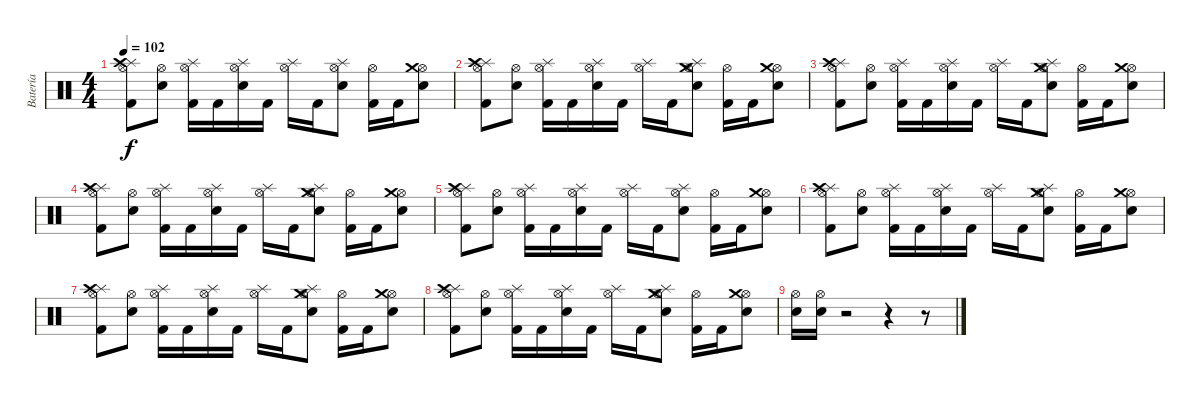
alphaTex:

\track ("Batería" "Batería") {instrument percussion}
\staff {score}
\articulation defaults
\ts (4 4)
\tempo 102
\clef neutral
\ks c
("Hi-Hat (open)" "Splash (hit)" "Kick (hit) 2" "Crash high (hit)").8{dy f} ("Hi-Hat (open)" "Snare (hit) 2").8 ("Hi-Hat (open)" "Splash (hit)" "Kick (hit) 2").16 "Kick (hit) 2".16 ("Hi-Hat (open)" "Snare (hit) 2" "Splash (hit)").16 "Kick (hit) 2".16 ("Hi-Hat (open)" "Splash (hit)").16 "Kick (hit) 2".16 ("Hi-Hat (open)" "Snare (hit) 2" "Splash (hit)").8 ("Hi-Hat (open)" "Kick (hit) 2").16 "Kick (hit) 2".16 ("Hi-Hat (open)" "Snare (hit) 2" "Crash medium (hit)").8 |
("Hi-Hat (open)" "Splash (hit)" "Kick (hit) 2" "Crash high (hit)").8 ("Hi-Hat (open)" "Snare (hit) 2").8 ("Hi-Hat (open)" "Splash (hit)" "Kick (hit) 2").16 "Kick (hit) 2".16 ("Hi-Hat (open)" "Snare (hit) 2" "Splash (hit)").16 "Kick (hit) 2".16 ("Hi-Hat (open)" "Splash (hit)").16 "Kick (hit) 2".16 ("Hi-Hat (open)" "Snare (hit) 2" "Splash (hit)" "Crash medium (hit)").8 ("Hi-Hat (open)" "Kick (hit) 2").16 "Kick (hit) 2".16 ("Hi-Hat (open)" "Snare (hit) 2" "Crash medium (hit)").8 |
("Hi-Hat (open)" "Splash (hit)" "Kick (hit) 2" "Crash high (hit)").8 ("Hi-Hat (open)" "Snare (hit) 2").8 ("Hi-Hat (open)" "Splash (hit)" "Kick (hit) 2").16 "Kick (hit) 2".16 ("Hi-Hat (open)" "Snare (hit) 2" "Splash (hit)").16 "Kick (hit) 2".16 ("Hi-Hat (open)" "Splash (hit)").16 "Kick (hit) 2".16 ("Hi-Hat (open)" "Snare (hit) 2" "Splash (hit)" "Crash medium (hit)").8 ("Hi-Hat (open)" "Kick (hit) 2").16 "Kick (hit) 2".16 ("Hi-Hat (open)" "Snare (hit) 2" "Crash medium (hit)").8 |
("Hi-Hat (open)" "Splash (hit)" "Kick (hit) 2" "Crash high (hit)").8 ("Hi-Hat (open)" "Snare (hit) 2").8 ("Hi-Hat (open)" "Splash (hit)" "Kick (hit) 2").16 "Kick (hit) 2".16 ("Hi-Hat (open)" "Snare (hit) 2" "Splash (hit)").16 "Kick (hit) 2".16 ("Hi-Hat (open)" "Splash (hit)").16 "Kick (hit) 2".16 ("Hi-Hat (open)" "Snare (hit) 2" "Splash (hit)" "Crash medium (hit)").8 ("Hi-Hat (open)" "Kick (hit) 2").16 "Kick (hit) 2".16 ("Hi-Hat (open)" "Snare (hit) 2" "Crash medium (hit)").8 |
("Hi-Hat (open)" "Splash (hit)" "Kick (hit) 2" "Crash high (hit)").8 ("Hi-Hat (open)" "Snare (hit) 2").8 ("Hi-Hat (open)" "Splash (hit)" "Kick (hit) 2").16 "Kick (hit) 2".16 ("Hi-Hat (open)" "Snare (hit) 2" "Splash (hit)").16 "Kick (hit) 2".16 ("Hi-Hat (open)" "Splash (hit)").16 "Kick (hit) 2".16 ("Hi-Hat (open)" "Snare (hit) 2" "Splash (hit)").8 ("Hi-Hat (open)" "Kick (hit) 2").16 "Kick (hit) 2".16 ("Hi-Hat (open)" "Snare (hit) 2" "Crash medium (hit)").8 |
("Hi-Hat (open)" "Splash (hit)" "Kick (hit) 2" "Crash high (hit)").8 ("Hi-Hat (open)" "Snare (hit) 2").8 ("Hi-Hat (open)" "Splash (hit)" "Kick (hit) 2").16 "Kick (hit) 2".16 ("Hi-Hat (open)" "Snare (hit) 2" "Splash (hit)").16 "Kick (hit) 2".16 ("Hi-Hat (open)" "Splash (hit)").16 "Kick (hit) 2".16 ("Hi-Hat (open)" "Snare (hit) 2" "Splash (hit)" "Crash medium (hit)").8 ("Hi-Hat (open)" "Kick (hit) 2").16 "Kick (hit) 2".16 ("Hi-Hat (open)" "Snare (hit) 2" "Crash medium (hit)").8 |
("Hi-Hat (open)" "Splash (hit)" "Kick (hit) 2" "Crash high (hit)").8 ("Hi-Hat (open)" "Snare (hit) 2").8 ("Hi-Hat (open)" "Splash (hit)" "Kick (hit) 2").16 "Kick (hit) 2".16 ("Hi-Hat (open)" "Snare (hit) 2" "Splash (hit)").16 "Kick (hit) 2".16 ("Hi-Hat (open)" "Splash (hit)").16 "Kick (hit) 2".16 ("Hi-Hat (open)" "Snare (hit) 2" "Splash (hit)" "Crash medium (hit)").8 ("Hi-Hat (open)" "Kick (hit) 2").16 "Kick (hit) 2".16 ("Hi-Hat (open)" "Snare (hit) 2" "Crash medium (hit)").8 |
("Hi-Hat (open)" "Splash (hit)" "Kick (hit) 2" "Crash high (hit)").8 ("Hi-Hat (open)" "Snare (hit) 2").8 ("Hi-Hat (open)" "Splash (hit)" "Kick (hit) 2").16 "Kick (hit) 2".16 ("Hi-Hat (open)" "Snare (hit) 2" "Splash (hit)").16 "Kick (hit) 2".16 ("Hi-Hat (open)" "Splash (hit)").16 "Kick (hit) 2".16 ("Hi-Hat (open)" "Snare (hit) 2" "Splash (hit)" "Crash medium (hit)").8 ("Hi-Hat (open)" "Kick (hit) 2").16 "Kick (hit) 2".16 ("Hi-Hat (open)" "Snare (hit) 2" "Crash medium (hit)").8 |
("Hi-Hat (open)" "Snare (hit) 2").16 ("Hi-Hat (open)" "Snare (hit) 2").16 r.2 r.4 r.8
